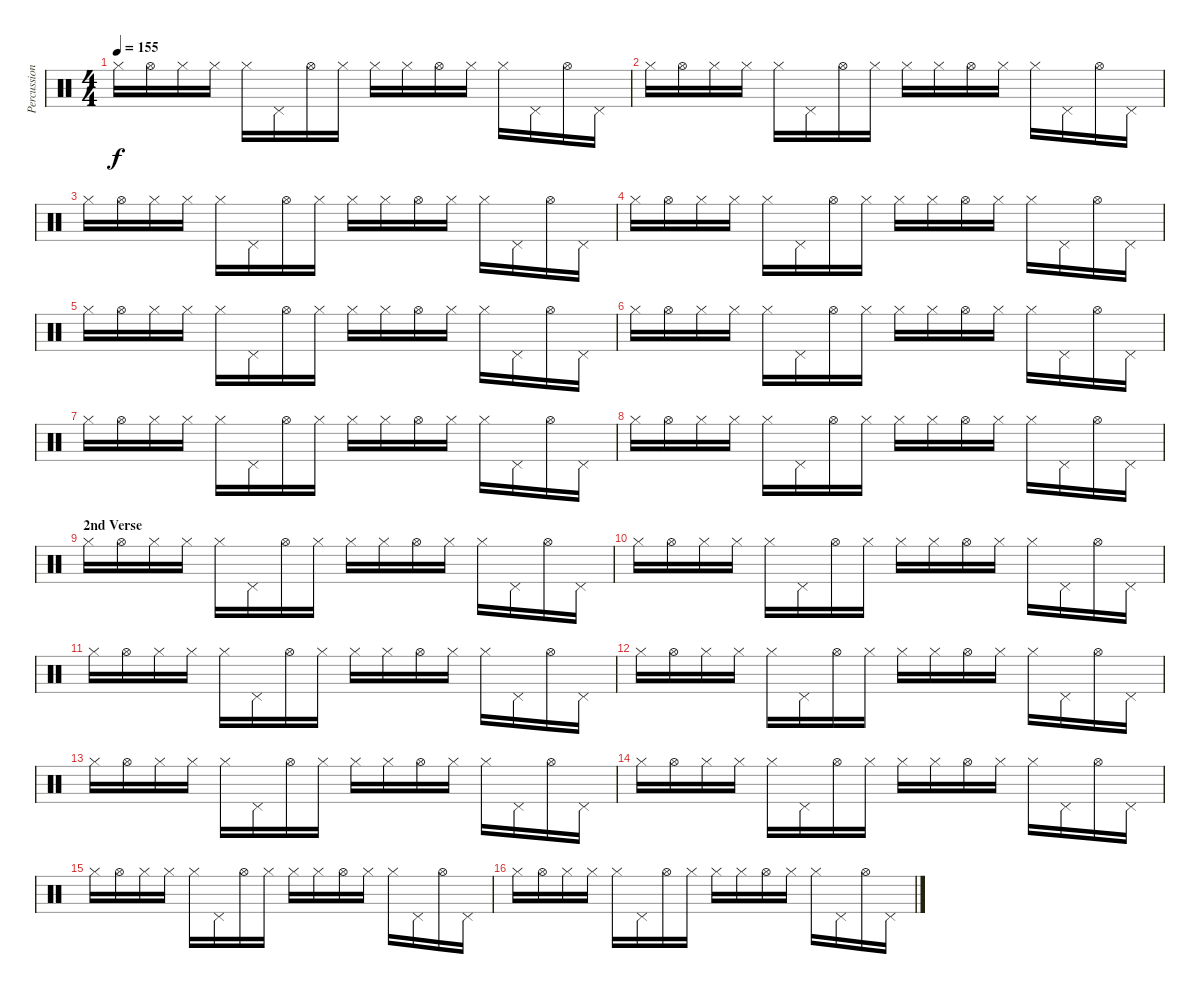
\track ("Percussion" "Percussion") {instrument percussion}
\staff {score}
\articulation defaults
\ts (4 4)
\tempo 155
\clef neutral
\ks c "Hi-Hat (closed)".16{dy f} "Hi-Hat (open)".16 "Hi-Hat (closed)".16 "Hi-Hat (closed)".16 "Hi-Hat (closed)".16 "Pedal Hi-Hat (hit)".16 "Hi-Hat (open)".16 "Hi-Hat (closed)".16 "Hi-Hat (closed)".16 "Hi-Hat (closed)".16 "Hi-Hat (open)".16 "Hi-Hat (closed)".16 "Hi-Hat (closed)".16 "Pedal Hi-Hat (hit)".16 "Hi-Hat (open)".16 "Pedal Hi-Hat (hit)".16
|
"Hi-Hat (closed)".16 "Hi-Hat (open)".16 "Hi-Hat (closed)".16 "Hi-Hat (closed)".16 "Hi-Hat (closed)".16 "Pedal Hi-Hat (hit)".16 "Hi-Hat (open)".16 "Hi-Hat (closed)".16 "Hi-Hat (closed)".16 "Hi-Hat (closed)".16 "Hi-Hat (open)".16 "Hi-Hat (closed)".16 "Hi-Hat (closed)".16 "Pedal Hi-Hat (hit)".16 "Hi-Hat (open)".16 "Pedal Hi-Hat (hit)".16 |
"Hi-Hat (closed)".16 "Hi-Hat (open)".16 "Hi-Hat (closed)".16 "Hi-Hat (closed)".16 "Hi-Hat (closed)".16 "Pedal Hi-Hat (hit)".16 "Hi-Hat (open)".16 "Hi-Hat (closed)".16 "Hi-Hat (closed)".16 "Hi-Hat (closed)".16 "Hi-Hat (open)".16 "Hi-Hat (closed)".16 "Hi-Hat (closed)".16 "Pedal Hi-Hat (hit)".16 "Hi-Hat (open)".16 "Pedal Hi-Hat (hit)".16 |
"Hi-Hat (closed)".16 "Hi-Hat (open)".16 "Hi-Hat (closed)".16 "Hi-Hat (closed)".16 "Hi-Hat (closed)".16 "Pedal Hi-Hat (hit)".16 "Hi-Hat (open)".16 "Hi-Hat (closed)".16 "Hi-Hat (closed)".16 "Hi-Hat (closed)".16 "Hi-Hat (open)".16 "Hi-Hat (closed)".16 "Hi-Hat (closed)".16 "Pedal Hi-Hat (hit)".16 "Hi-Hat (open)".16 "Pedal Hi-Hat (hit)".16 |
"Hi-Hat (closed)".16 "Hi-Hat (open)".16 "Hi-Hat (closed)".16 "Hi-Hat (closed)".16 "Hi-Hat (closed)".16 "Pedal Hi-Hat (hit)".16 "Hi-Hat (open)".16 "Hi-Hat (closed)".16 "Hi-Hat (closed)".16 "Hi-Hat (closed)".16 "Hi-Hat (open)".16 "Hi-Hat (closed)".16 "Hi-Hat (closed)".16 "Pedal Hi-Hat (hit)".16 "Hi-Hat (open)".16 "Pedal Hi-Hat (hit)".16 |
"Hi-Hat (closed)".16 "Hi-Hat (open)".16 "Hi-Hat (closed)".16 "Hi-Hat (closed)".16 "Hi-Hat (closed)".16 "Pedal Hi-Hat (hit)".16 "Hi-Hat (open)".16 "Hi-Hat (closed)".16 "Hi-Hat (closed)".16 "Hi-Hat (closed)".16 "Hi-Hat (open)".16 "Hi-Hat (closed)".16 "Hi-Hat (closed)".16 "Pedal Hi-Hat (hit)".16 "Hi-Hat (open)".16 "Pedal Hi-Hat (hit)".16 |
"Hi-Hat (closed)".16 "Hi-Hat (open)".16 "Hi-Hat (closed)".16 "Hi-Hat (closed)".16 "Hi-Hat (closed)".16 "Pedal Hi-Hat (hit)".16 "Hi-Hat (open)".16 "Hi-Hat (closed)".16 "Hi-Hat (closed)".16 "Hi-Hat (closed)".16 "Hi-Hat (open)".16 "Hi-Hat (closed)".16 "Hi-Hat (closed)".16 "Pedal Hi-Hat (hit)".16 "Hi-Hat (open)".16 "Pedal Hi-Hat (hit)".16 |
"Hi-Hat (closed)".16 "Hi-Hat (open)".16 "Hi-Hat (closed)".16 "Hi-Hat (closed)".16 "Hi-Hat (closed)".16 "Pedal Hi-Hat (hit)".16 "Hi-Hat (open)".16 "Hi-Hat (closed)".16 "Hi-Hat (closed)".16 "Hi-Hat (closed)".16 "Hi-Hat (open)".16 "Hi-Hat (closed)".16 "Hi-Hat (closed)".16 "Pedal Hi-Hat (hit)".16 "Hi-Hat (open)".16 "Pedal Hi-Hat (hit)".16 |
\section ("" "2nd Verse")
"Hi-Hat (closed)".16 "Hi-Hat (open)".16 "Hi-Hat (closed)".16 "Hi-Hat (closed)".16 "Hi-Hat (closed)".16 "Pedal Hi-Hat (hit)".16 "Hi-Hat (open)".16 "Hi-Hat (closed)".16 "Hi-Hat (closed)".16 "Hi-Hat (closed)".16 "Hi-Hat (open)".16 "Hi-Hat (closed)".16 "Hi-Hat (closed)".16 "Pedal Hi-Hat (hit)".16 "Hi-Hat (open)".16 "Pedal Hi-Hat (hit)".16 |
"Hi-Hat (closed)".16 "Hi-Hat (open)".16 "Hi-Hat (closed)".16 "Hi-Hat (closed)".16 "Hi-Hat (closed)".16 "Pedal Hi-Hat (hit)".16 "Hi-Hat (open)".16 "Hi-Hat (closed)".16 "Hi-Hat (closed)".16 "Hi-Hat (closed)".16 "Hi-Hat (open)".16 "Hi-Hat (closed)".16 "Hi-Hat (closed)".16 "Pedal Hi-Hat (hit)".16 "Hi-Hat (open)".16 "Pedal Hi-Hat (hit)".16 |
"Hi-Hat (closed)".16 "Hi-Hat (open)".16 "Hi-Hat (closed)".16 "Hi-Hat (closed)".16 "Hi-Hat (closed)".16 "Pedal Hi-Hat (hit)".16 "Hi-Hat (open)".16 "Hi-Hat (closed)".16 "Hi-Hat (closed)".16 "Hi-Hat (closed)".16 "Hi-Hat (open)".16 "Hi-Hat (closed)".16 "Hi-Hat (closed)".16 "Pedal Hi-Hat (hit)".16 "Hi-Hat (open)".16 "Pedal Hi-Hat (hit)".16 |
"Hi-Hat (closed)".16 "Hi-Hat (open)".16 "Hi-Hat (closed)".16 "Hi-Hat (closed)".16 "Hi-Hat (closed)".16 "Pedal Hi-Hat (hit)".16 "Hi-Hat (open)".16 "Hi-Hat (closed)".16 "Hi-Hat (closed)".16 "Hi-Hat (closed)".16 "Hi-Hat (open)".16 "Hi-Hat (closed)".16 "Hi-Hat (closed)".16 "Pedal Hi-Hat (hit)".16 "Hi-Hat (open)".16 "Pedal Hi-Hat (hit)".16 |
"Hi-Hat (closed)".16 "Hi-Hat (open)".16 "Hi-Hat (closed)".16 "Hi-Hat (closed)".16 "Hi-Hat (closed)".16 "Pedal Hi-Hat (hit)".16 "Hi-Hat (open)".16 "Hi-Hat (closed)".16 "Hi-Hat (closed)".16 "Hi-Hat (closed)".16 "Hi-Hat (open)".16 "Hi-Hat (closed)".16 "Hi-Hat (closed)".16 "Pedal Hi-Hat (hit)".16 "Hi-Hat (open)".16 "Pedal Hi-Hat (hit)".16 |
"Hi-Hat (closed)".16 "Hi-Hat (open)".16 "Hi-Hat (closed)".16 "Hi-Hat (closed)".16 "Hi-Hat (closed)".16 "Pedal Hi-Hat (hit)".16 "Hi-Hat (open)".16 "Hi-Hat (closed)".16 "Hi-Hat (closed)".16 "Hi-Hat (closed)".16 "Hi-Hat (open)".16 "Hi-Hat (closed)".16 "Hi-Hat (closed)".16 "Pedal Hi-Hat (hit)".16 "Hi-Hat (open)".16 "Pedal Hi-Hat (hit)".16 |
"Hi-Hat (closed)".16 "Hi-Hat (open)".16 "Hi-Hat (closed)".16 "Hi-Hat (closed)".16 "Hi-Hat (closed)".16 "Pedal Hi-Hat (hit)".16 "Hi-Hat (open)".16 "Hi-Hat (closed)".16 "Hi-Hat (closed)".16 "Hi-Hat (closed)".16 "Hi-Hat (open)".16 "Hi-Hat (closed)".16 "Hi-Hat (closed)".16 "Pedal Hi-Hat (hit)".16 "Hi-Hat (open)".16 "Pedal Hi-Hat (hit)".16 |
"Hi-Hat (closed)".16 "Hi-Hat (open)".16 "Hi-Hat (closed)".16 "Hi-Hat (closed)".16 "Hi-Hat (closed)".16 "Pedal Hi-Hat (hit)".16 "Hi-Hat (open)".16 "Hi-Hat (closed)".16 "Hi-Hat (closed)".16 "Hi-Hat (closed)".16 "Hi-Hat (open)".16 "Hi-Hat (closed)".16 "Hi-Hat (closed)".16 "Pedal Hi-Hat (hit)".16 "Hi-Hat (open)".16 "Pedal Hi-Hat (hit)".16
